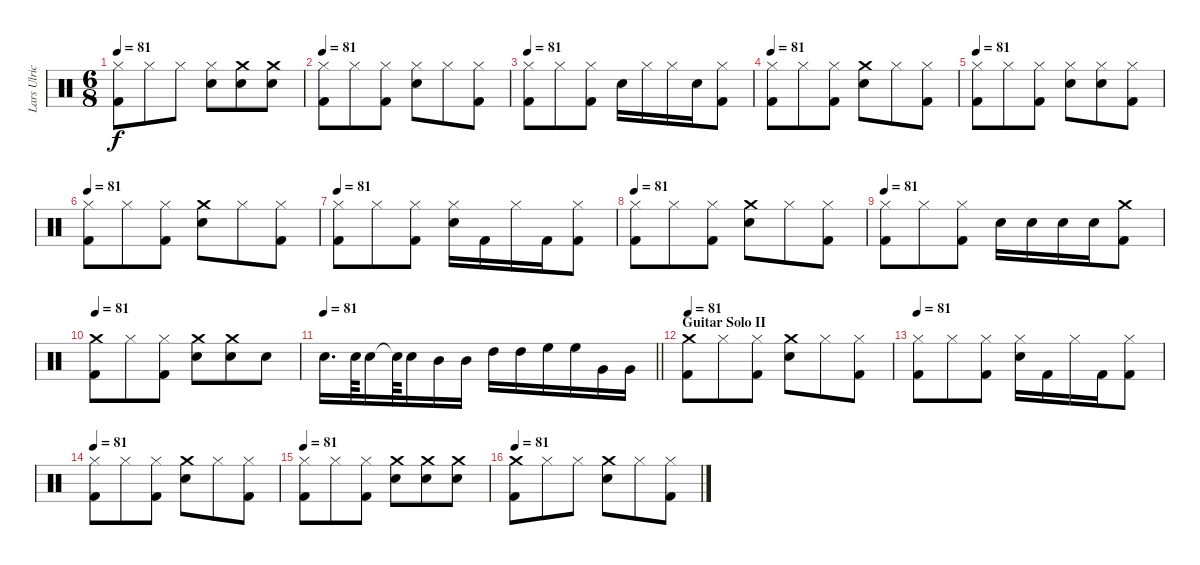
\track ("Lars Ulrich (Drums)" "Lars Ulric") {instrument percussion}
\staff {score}
\articulation defaults
\ts (6 8)
\tempo 81
\clef neutral
\ks c
("Hi-Hat (closed)" "Kick (hit) 2").8{dy f} "Hi-Hat (closed)".8 "Hi-Hat (closed)".8 ("Snare (hit) 2" "Hi-Hat (closed)").8 ("Crash medium (hit)" "Snare (hit) 2").8 ("Crash medium (hit)" "Snare (hit) 2").8 |
\tempo 81
("Kick (hit) 2" "Hi-Hat (closed)").8 "Hi-Hat (closed)".8 ("Kick (hit) 2" "Hi-Hat (closed)").8 ("Snare (hit) 2" "Hi-Hat (closed)").8 "Hi-Hat (closed)".8 ("Kick (hit) 2" "Hi-Hat (closed)").8 |
\tempo 81
("Hi-Hat (closed)" "Kick (hit) 2").8 "Hi-Hat (closed)".8 ("Kick (hit) 2" "Hi-Hat (closed)").8 "Snare (hit) 2".16 "Hi-Hat (closed)".16 "Hi-Hat (closed)".16 "Snare (hit) 2".16 ("Hi-Hat (closed)" "Kick (hit) 2").8 |
\tempo 81
("Hi-Hat (closed)" "Kick (hit) 2").8 "Hi-Hat (closed)".8 ("Kick (hit) 2" "Hi-Hat (closed)").8 ("Crash medium (hit)" "Snare (hit) 2").8 "Hi-Hat (closed)".8 ("Kick (hit) 2" "Hi-Hat (closed)").8 |
\tempo 81
("Hi-Hat (closed)" "Kick (hit) 2").8 "Hi-Hat (closed)".8 ("Kick (hit) 2" "Hi-Hat (closed)").8 ("Hi-Hat (closed)" "Snare (hit) 2").8 ("Hi-Hat (closed)" "Snare (hit) 2").8 ("Kick (hit) 2" "Hi-Hat (closed)").8 |
\tempo 81
("Hi-Hat (closed)" "Kick (hit) 2").8 "Hi-Hat (closed)".8 ("Kick (hit) 2" "Hi-Hat (closed)").8 ("Crash medium (hit)" "Snare (hit) 2").8 "Hi-Hat (closed)".8 ("Kick (hit) 2" "Hi-Hat (closed)").8 |
\tempo 81
("Hi-Hat (closed)" "Kick (hit) 2").8 "Hi-Hat (closed)".8 ("Kick (hit) 2" "Hi-Hat (closed)").8 ("Snare (hit) 2" "Hi-Hat (closed)").16 "Kick (hit) 2".16 "Hi-Hat (closed)".16 "Kick (hit) 2".16 ("Kick (hit) 2" "Hi-Hat (closed)").8 |
\tempo 81
("Kick (hit) 2" "Hi-Hat (closed)").8 "Hi-Hat (closed)".8 ("Kick (hit) 2" "Hi-Hat (closed)").8 ("Crash medium (hit)" "Snare (hit) 2").8 "Hi-Hat (closed)".8 ("Hi-Hat (closed)" "Kick (hit) 2").8 |
\tempo 81
("Kick (hit) 2" "Hi-Hat (closed)").8 "Hi-Hat (closed)".8 ("Kick (hit) 2" "Hi-Hat (closed)").8 "Snare (hit) 2".16 "Snare (hit) 2".16 "Snare (hit) 2".16 "Snare (hit) 2".16 ("Crash medium (hit)" "Kick (hit) 2").8 |
\tempo 81
("Kick (hit) 2" "Crash medium (hit)").8 "Hi-Hat (closed)".8 ("Kick (hit) 2" "Hi-Hat (closed)").8 ("Crash medium (hit)" "Snare (hit) 2").8 ("Crash medium (hit)" "Snare (hit) 2").8 "Snare (hit) 2".8 |
\tempo 81
\barLineRight lightlight "Snare (hit) 2".16{d} "Snare (hit) 2".64 "Snare (hit) 2".16 "Snare (hit)"{t}.64 "Snare (hit) 2".16 "Mid Tom (hit)".16 "Mid Tom (hit)".16 "High Tom (hit)".16 "High Tom (hit)".16 "High Floor Tom (hit)".16 "High Floor Tom (hit)".16 "Very Low Tom (hit)".16 "Very Low Tom (hit)".16
|
\section ("" "Guitar Solo II")
\tempo 81
("Kick (hit) 2" "Crash medium (hit)").8 "Hi-Hat (closed)".8 ("Kick (hit) 2" "Hi-Hat (closed)").8 ("Crash medium (hit)" "Snare (hit) 2").8 "Hi-Hat (closed)".8 ("Kick (hit) 2" "Hi-Hat (closed)").8 |
\tempo 81
("Hi-Hat (closed)" "Kick (hit) 2").8 "Hi-Hat (closed)".8 ("Kick (hit) 2" "Hi-Hat (closed)").8 ("Snare (hit) 2" "Hi-Hat (closed)").16 "Kick (hit) 2".16 "Hi-Hat (closed)".16 "Kick (hit) 2".16 ("Kick (hit) 2" "Hi-Hat (closed)").8 |
\tempo 81
("Hi-Hat (closed)" "Kick (hit) 2").8 "Hi-Hat (closed)".8 ("Hi-Hat (closed)" "Kick (hit) 2").8 ("Crash medium (hit)" "Snare (hit) 2").8 "Hi-Hat (closed)".8 ("Hi-Hat (closed)" "Kick (hit) 2").8 |
\tempo 81
("Hi-Hat (closed)" "Kick (hit) 2").8 "Hi-Hat (closed)".8 ("Kick (hit) 2" "Hi-Hat (closed)").8 ("Crash medium (hit)" "Snare (hit) 2").8 ("Crash medium (hit)" "Snare (hit) 2").8 ("Crash medium (hit)" "Snare (hit) 2").8 |
\tempo 81
("Crash medium (hit)" "Kick (hit) 2").8 "Hi-Hat (closed)".8 "Hi-Hat (closed)".8 ("Crash medium (hit)" "Snare (hit) 2").8 "Hi-Hat (closed)".8 ("Kick (hit) 2" "Hi-Hat (closed)").8
